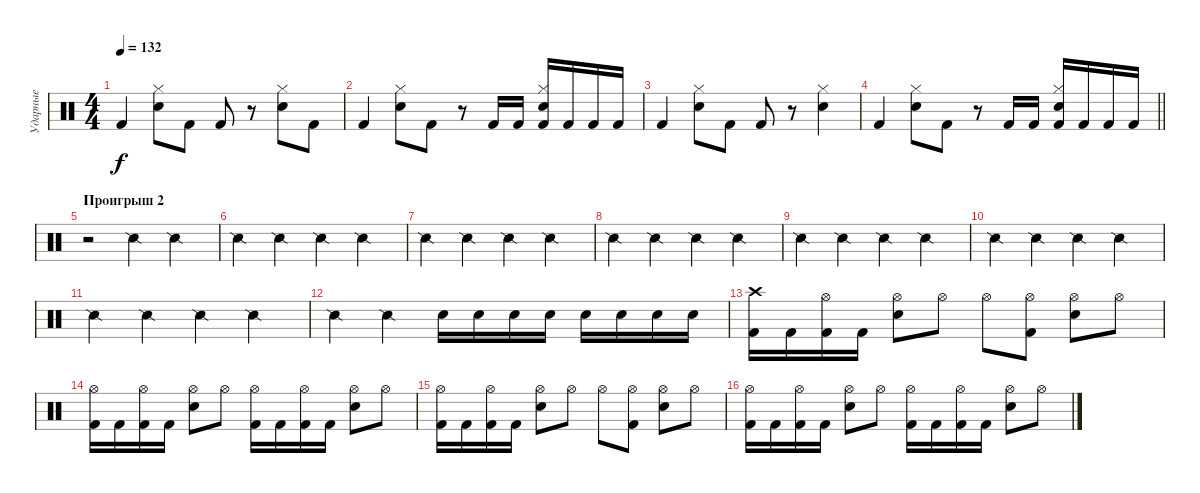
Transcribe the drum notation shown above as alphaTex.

\track ("Ударные" "Ударные") {instrument percussion}
\staff {score}
\articulation defaults
\ts (4 4)
\tempo 132
\clef neutral
\ks c "Kick (hit) 2".4{dy f}
("Hi-Hat (closed)" "Snare (hit) 2").8 "Kick (hit) 2".8 "Kick (hit) 2".8 r.8 ("Hi-Hat (closed)" "Snare (hit) 2").8 "Kick (hit) 2".8 |
"Kick (hit) 2".4 ("Hi-Hat (closed)" "Snare (hit) 2").8 "Kick (hit) 2".8 r.8 "Kick (hit) 2".16 "Kick (hit) 2".16 ("Hi-Hat (closed)" "Snare (hit) 2" "Kick (hit) 2").16 "Kick (hit) 2".16 "Kick (hit) 2".16 "Kick (hit) 2".16 |
"Kick (hit) 2".4 ("Hi-Hat (closed)" "Snare (hit) 2").8 "Kick (hit) 2".8 "Kick (hit) 2".8 r.8 ("Hi-Hat (closed)" "Snare (hit) 2").4 |
\barLineRight lightlight "Kick (hit) 2".4
("Hi-Hat (closed)" "Snare (hit) 2").8 "Kick (hit) 2".8 r.8 "Kick (hit) 2".16 "Kick (hit) 2".16 ("Hi-Hat (closed)" "Snare (hit) 2" "Kick (hit) 2").16 "Kick (hit) 2".16 "Kick (hit) 2".16 "Kick (hit) 2".16 |
\section ("" "Проигрыш 2")
r.2 "Snare (side stick) 2".4 "Snare (side stick) 2".4 |
"Snare (side stick) 2".4 "Snare (side stick) 2".4 "Snare (side stick) 2".4 "Snare (side stick) 2".4 |
"Snare (side stick) 2".4 "Snare (side stick) 2".4 "Snare (side stick) 2".4 "Snare (side stick) 2".4 |
"Snare (side stick) 2".4 "Snare (side stick) 2".4 "Snare (side stick) 2".4 "Snare (side stick) 2".4 |
"Snare (side stick) 2".4 "Snare (side stick) 2".4 "Snare (side stick) 2".4 "Snare (side stick) 2".4 |
"Snare (side stick) 2".4 "Snare (side stick) 2".4 "Snare (side stick) 2".4 "Snare (side stick) 2".4 |
"Snare (side stick) 2".4 "Snare (side stick) 2".4 "Snare (side stick) 2".4 "Snare (side stick) 2".4 |
"Snare (side stick) 2".4 "Snare (side stick) 2".4 "Snare (hit) 2".16 "Snare (hit) 2".16 "Snare (hit) 2".16 "Snare (hit) 2".16 "Snare (hit) 2".16 "Snare (hit) 2".16 "Snare (hit) 2".16 "Snare (hit) 2".16 |
("Crash high (hit)" "Kick (hit) 2").16 "Kick (hit) 2".16 ("Hi-Hat (open)" "Kick (hit) 2").16 "Kick (hit) 2".16 ("Hi-Hat (open)" "Snare (hit) 2").8 "Hi-Hat (open)".8 "Hi-Hat (open)".8 ("Hi-Hat (open)" "Kick (hit) 2").8 ("Hi-Hat (open)" "Snare (hit) 2").8 "Hi-Hat (open)".8 |
("Hi-Hat (open)" "Kick (hit) 2").16 "Kick (hit) 2".16 ("Hi-Hat (open)" "Kick (hit) 2").16 "Kick (hit) 2".16 ("Hi-Hat (open)" "Snare (hit) 2").8 "Hi-Hat (open)".8 ("Hi-Hat (open)" "Kick (hit) 2").16 "Kick (hit) 2".16 ("Hi-Hat (open)" "Kick (hit) 2").16 "Kick (hit) 2".16 ("Hi-Hat (open)" "Snare (hit) 2").8 "Hi-Hat (open)".8 |
("Hi-Hat (open)" "Kick (hit) 2").16 "Kick (hit) 2".16 ("Hi-Hat (open)" "Kick (hit) 2").16 "Kick (hit) 2".16 ("Hi-Hat (open)" "Snare (hit) 2").8 "Hi-Hat (open)".8 "Hi-Hat (open)".8 ("Hi-Hat (open)" "Kick (hit) 2").8 ("Hi-Hat (open)" "Snare (hit) 2").8 "Hi-Hat (open)".8 |
("Hi-Hat (open)" "Kick (hit) 2").16 "Kick (hit) 2".16 ("Hi-Hat (open)" "Kick (hit) 2").16 "Kick (hit) 2".16 ("Hi-Hat (open)" "Snare (hit) 2").8 "Hi-Hat (open)".8 ("Hi-Hat (open)" "Kick (hit) 2").16 "Kick (hit) 2".16 ("Hi-Hat (open)" "Kick (hit) 2").16 "Kick (hit) 2".16 ("Hi-Hat (open)" "Snare (hit) 2").8 "Hi-Hat (open)".8
